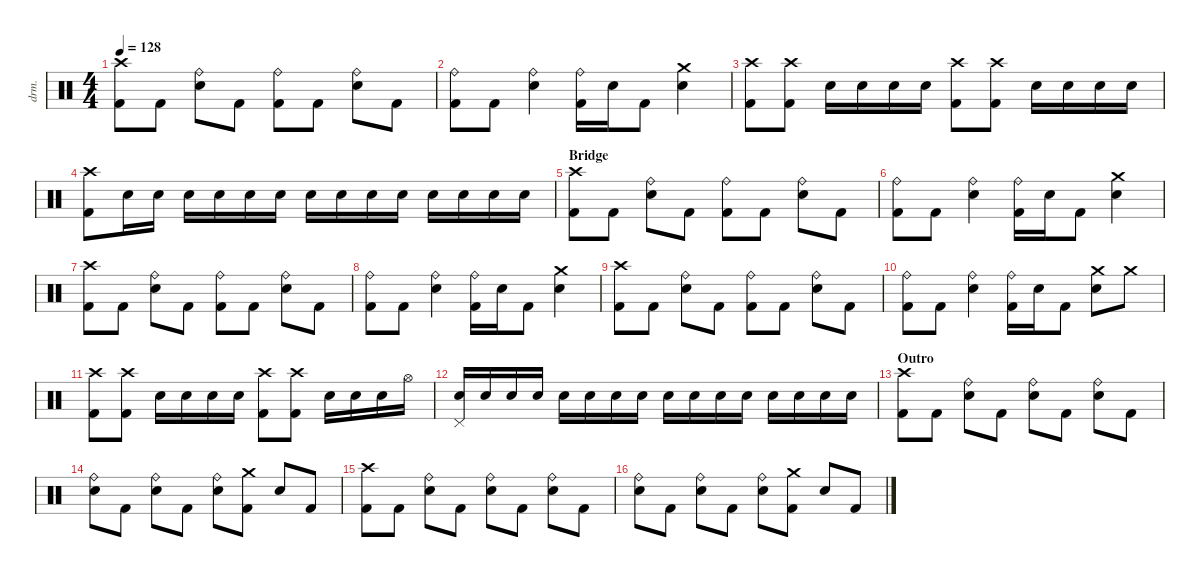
\defaultSystemsLayout 4
\hideDynamics
\bracketExtendMode nobrackets
\otherSystemsTrackNameOrientation horizontal
\track ("Jimmy Chamberlin" "drm.") {instrument percussion}
\staff {score}
\articulation defaults
\ts (4 4)
\tempo 128
\clef neutral
\ks c
("Kick (hit) 2" "Crash high (hit)").8{dy mf beam Down} "Kick (hit) 2".8{beam Down} ("Ride (bell)" "Snare (hit) 2").8{beam Down} "Kick (hit) 2".8{beam Down} ("Kick (hit) 2" "Ride (bell)").8{beam Down} "Kick (hit) 2".8{beam Down} ("Ride (bell)" "Snare (hit) 2").8{beam Down} "Kick (hit) 2".8{beam Down} |
("Kick (hit) 2" "Ride (bell)").8{beam Down} "Kick (hit) 2".8{beam Down} ("Ride (bell)" "Snare (hit) 2").4{beam Down} ("Kick (hit) 2" "Ride (bell)").16{beam Down} "Snare (hit) 2".16{beam Down} "Kick (hit) 2".8{beam Down} ("Crash medium (hit)" "Snare (hit) 2").4{beam Down} |
("Kick (hit) 2" "Crash high (hit)").8{beam Down} ("Kick (hit) 2" "Crash high (hit)").8{beam Down} "Snare (hit) 2".16{beam Down} "Snare (hit) 2".16{beam Down} "Snare (hit) 2".16{beam Down} "Snare (hit) 2".16{beam Down} ("Kick (hit) 2" "Crash high (hit)").8{beam Down} ("Kick (hit) 2" "Crash high (hit)").8{beam Down} "Snare (hit) 2".16{beam Down} "Snare (hit) 2".16{beam Down} "Snare (hit) 2".16{beam Down} "Snare (hit) 2".16{beam Down} |
("Kick (hit) 2" "Crash high (hit)").8{beam Down} "Snare (hit) 2".16{beam Down} "Snare (hit) 2".16{beam Down} "Snare (hit) 2".16{beam Down} "Snare (hit) 2".16{beam Down} "Snare (hit) 2".16{beam Down} "Snare (hit) 2".16{beam Down} "Snare (hit) 2".16{beam Down} "Snare (hit) 2".16{beam Down} "Snare (hit) 2".16{beam Down} "Snare (hit) 2".16{beam Down} "Snare (hit) 2".16{beam Down} "Snare (hit) 2".16{beam Down} "Snare (hit) 2".16{beam Down} "Snare (hit) 2".16{beam Down} |
\section ("" "Bridge")
("Kick (hit) 2" "Crash high (hit)").8{beam Down} "Kick (hit) 2".8{beam Down} ("Ride (bell)" "Snare (hit) 2").8{beam Down} "Kick (hit) 2".8{beam Down} ("Ride (bell)" "Kick (hit) 2").8{beam Down} "Kick (hit) 2".8{beam Down} ("Ride (bell)" "Snare (hit) 2").8{beam Down} "Kick (hit) 2".8{beam Down} |
("Kick (hit) 2" "Ride (bell)").8{beam Down} "Kick (hit) 2".8{beam Down} ("Ride (bell)" "Snare (hit) 2").4{beam Down} ("Kick (hit) 2" "Ride (bell)").16{beam Down} "Snare (hit) 2".16{beam Down} "Kick (hit) 2".8{beam Down} ("Crash medium (hit)" "Snare (hit) 2").4{beam Down} |
("Kick (hit) 2" "Crash high (hit)").8{beam Down} "Kick (hit) 2".8{beam Down} ("Ride (bell)" "Snare (hit) 2").8{beam Down} "Kick (hit) 2".8{beam Down} ("Ride (bell)" "Kick (hit) 2").8{beam Down} "Kick (hit) 2".8{beam Down} ("Ride (bell)" "Snare (hit) 2").8{beam Down} "Kick (hit) 2".8{beam Down} |
("Kick (hit) 2" "Ride (bell)").8{beam Down} "Kick (hit) 2".8{beam Down} ("Ride (bell)" "Snare (hit) 2").4{beam Down} ("Kick (hit) 2" "Ride (bell)").16{beam Down} "Snare (hit) 2".16{beam Down} "Kick (hit) 2".8{beam Down} ("Crash medium (hit)" "Snare (hit) 2").4{beam Down} |
("Kick (hit) 2" "Crash high (hit)").8{beam Down} "Kick (hit) 2".8{beam Down} ("Ride (bell)" "Snare (hit) 2").8{beam Down} "Kick (hit) 2".8{beam Down} ("Ride (bell)" "Kick (hit) 2").8{beam Down} "Kick (hit) 2".8{beam Down} ("Ride (bell)" "Snare (hit) 2").8{beam Down} "Kick (hit) 2".8{beam Down} |
("Kick (hit) 2" "Ride (bell)").8{beam Down} "Kick (hit) 2".8{beam Down} ("Ride (bell)" "Snare (hit) 2").4{beam Down} ("Kick (hit) 2" "Ride (bell)").16{beam Down} "Snare (hit) 2".16{beam Down} "Kick (hit) 2".8{beam Down} ("Crash medium (hit)" "Snare (hit) 2").8{beam Down} "Crash medium (hit)".8{beam Down} |
("Crash high (hit)" "Kick (hit) 2").8{beam Down} ("Crash high (hit)" "Kick (hit) 2").8{beam Down} "Snare (hit) 2".16{beam Down} "Snare (hit) 2".16{beam Down} "Snare (hit) 2".16{beam Down} "Snare (hit) 2".16{beam Down} ("Kick (hit) 2" "Crash high (hit)").8{beam Down} ("Kick (hit) 2" "Crash high (hit)").8{beam Down} "Snare (hit) 2".16{beam Down} "Snare (hit) 2".16{beam Down} "Snare (hit) 2".16{beam Down} "Hi-Hat (open)".16{beam Down} |
("Snare (hit) 2" "Pedal Hi-Hat (hit)").16{beam Up} "Snare (hit) 2".16{beam Up} "Snare (hit) 2".16{beam Up} "Snare (hit) 2".16{beam Up} "Snare (hit) 2".16{beam Down} "Snare (hit) 2".16{beam Down} "Snare (hit) 2".16{beam Down} "Snare (hit) 2".16{beam Down} "Snare (hit) 2".16{beam Down} "Snare (hit) 2".16{beam Down} "Snare (hit) 2".16{beam Down} "Snare (hit) 2".16{beam Down} "Snare (hit) 2".16{beam Down} "Snare (hit) 2".16{beam Down} "Snare (hit) 2".16{beam Down} "Snare (hit) 2".16{beam Down} |
\section ("" "Outro")
("Crash high (hit)" "Kick (hit) 2").8{beam Down} "Kick (hit) 2".8{beam Down} ("Ride (bell)" "Snare (hit) 2").8{beam Down} "Kick (hit) 2".8{beam Down} ("Ride (bell)" "Snare (hit) 2").8{beam Down} "Kick (hit) 2".8{beam Down} ("Ride (bell)" "Snare (hit) 2").8{beam Down} "Kick (hit) 2".8{beam Down} |
("Ride (bell)" "Snare (hit) 2").8{beam Down} "Kick (hit) 2".8{beam Down} ("Ride (bell)" "Snare (hit) 2").8{beam Down} "Kick (hit) 2".8{beam Down} ("Ride (bell)" "Snare (hit) 2").8{beam Down} ("Crash medium (hit)" "Kick (hit) 2").8{beam Down} "Snare (hit) 2".8{beam Up} "Kick (hit) 2".8{beam Up} |
("Crash high (hit)" "Kick (hit) 2").8{beam Down} "Kick (hit) 2".8{beam Down} ("Ride (bell)" "Snare (hit) 2").8{beam Down} "Kick (hit) 2".8{beam Down} ("Ride (bell)" "Snare (hit) 2").8{beam Down} "Kick (hit) 2".8{beam Down} ("Ride (bell)" "Snare (hit) 2").8{beam Down} "Kick (hit) 2".8{beam Down} |
("Ride (bell)" "Snare (hit) 2").8{beam Down} "Kick (hit) 2".8{beam Down} ("Ride (bell)" "Snare (hit) 2").8{beam Down} "Kick (hit) 2".8{beam Down} ("Ride (bell)" "Snare (hit) 2").8{beam Down} ("Crash medium (hit)" "Kick (hit) 2").8{beam Down} "Snare (hit) 2".8{beam Up} "Kick (hit) 2".8{beam Up}
